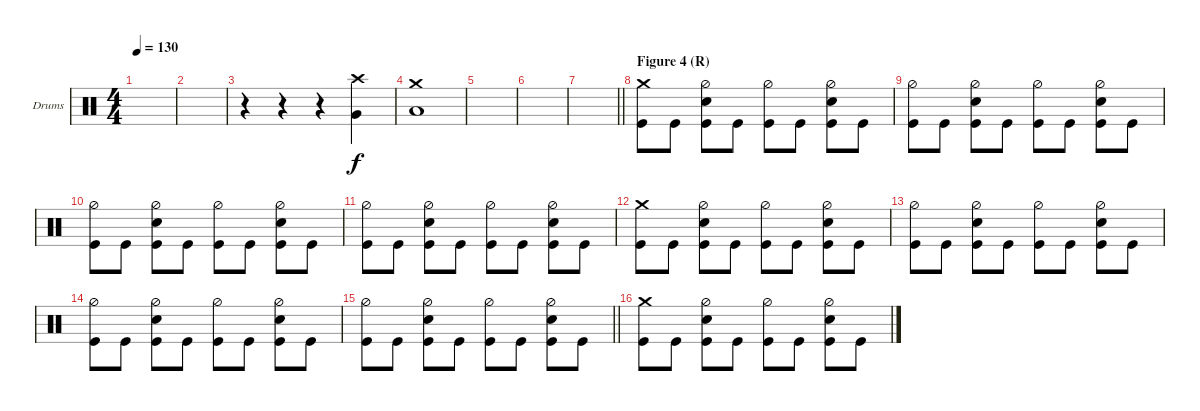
\defaultSystemsLayout 4
\bracketExtendMode groupsimilarinstruments
\firstSystemTrackNameOrientation horizontal
\otherSystemsTrackNameOrientation horizontal
\track ("Drums" "Drums") {instrument percussion}
\staff {score}
\articulation defaults
\ts (4 4)
\tempo 130
\clef neutral
\ks aminor
|
|
r.4 r.4 r.4 ("Very Low Tom (hit)" "Crash high (hit)").4 |
("Crash medium (hit)" "Low Tom (hit)").1 |
|
|
\barLineRight lightlight
|
\section ("" "Figure 4 (R)")
("Kick (hit)" "Crash medium (hit)").8 "Kick (hit)".8 ("Snare (hit) 2" "Hi-Hat (half)" "Kick (hit)").8 "Kick (hit)".8 ("Kick (hit)" "Hi-Hat (half)").8 "Kick (hit)".8 ("Snare (hit) 2" "Hi-Hat (half)" "Kick (hit)").8 "Kick (hit)".8 |
("Kick (hit)" "Hi-Hat (half)").8 "Kick (hit)".8 ("Snare (hit) 2" "Hi-Hat (half)" "Kick (hit)").8 "Kick (hit)".8 ("Kick (hit)" "Hi-Hat (half)").8 "Kick (hit)".8 ("Snare (hit) 2" "Hi-Hat (half)" "Kick (hit)").8 "Kick (hit)".8 |
("Kick (hit)" "Hi-Hat (half)").8 "Kick (hit)".8 ("Snare (hit) 2" "Hi-Hat (half)" "Kick (hit)").8 "Kick (hit)".8 ("Kick (hit)" "Hi-Hat (half)").8 "Kick (hit)".8 ("Snare (hit) 2" "Hi-Hat (half)" "Kick (hit)").8 "Kick (hit)".8 |
("Kick (hit)" "Hi-Hat (half)").8 "Kick (hit)".8 ("Snare (hit) 2" "Hi-Hat (half)" "Kick (hit)").8 "Kick (hit)".8 ("Kick (hit)" "Hi-Hat (half)").8 "Kick (hit)".8 ("Snare (hit) 2" "Hi-Hat (half)" "Kick (hit)").8 "Kick (hit)".8 |
("Kick (hit)" "Crash medium (hit)").8 "Kick (hit)".8 ("Snare (hit) 2" "Hi-Hat (half)" "Kick (hit)").8 "Kick (hit)".8 ("Kick (hit)" "Hi-Hat (half)").8 "Kick (hit)".8 ("Snare (hit) 2" "Hi-Hat (half)" "Kick (hit)").8 "Kick (hit)".8 |
("Kick (hit)" "Hi-Hat (half)").8 "Kick (hit)".8 ("Snare (hit) 2" "Hi-Hat (half)" "Kick (hit)").8 "Kick (hit)".8 ("Kick (hit)" "Hi-Hat (half)").8 "Kick (hit)".8 ("Snare (hit) 2" "Hi-Hat (half)" "Kick (hit)").8 "Kick (hit)".8 |
("Kick (hit)" "Hi-Hat (half)").8 "Kick (hit)".8 ("Snare (hit) 2" "Hi-Hat (half)" "Kick (hit)").8 "Kick (hit)".8 ("Kick (hit)" "Hi-Hat (half)").8 "Kick (hit)".8 ("Snare (hit) 2" "Hi-Hat (half)" "Kick (hit)").8 "Kick (hit)".8 |
\barLineRight lightlight
("Kick (hit)" "Hi-Hat (half)").8 "Kick (hit)".8 ("Snare (hit) 2" "Hi-Hat (half)" "Kick (hit)").8 "Kick (hit)".8 ("Kick (hit)" "Hi-Hat (half)").8 "Kick (hit)".8 ("Snare (hit) 2" "Hi-Hat (half)" "Kick (hit)").8 "Kick (hit)".8 |
("Kick (hit)" "Crash medium (hit)").8 "Kick (hit)".8 ("Snare (hit) 2" "Hi-Hat (half)" "Kick (hit)").8 "Kick (hit)".8 ("Kick (hit)" "Hi-Hat (half)").8 "Kick (hit)".8 ("Snare (hit) 2" "Hi-Hat (half)" "Kick (hit)").8 "Kick (hit)".8
